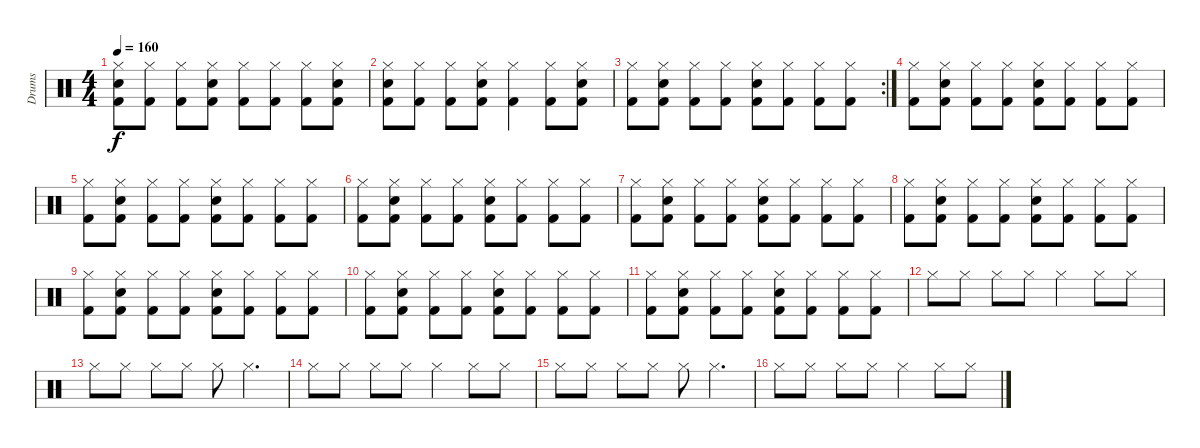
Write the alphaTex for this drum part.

\track ("Drums" "Drums") {instrument percussion}
\staff {score}
\articulation defaults
\ts (4 4)
\tempo 160
\clef neutral
\ks c
("Kick (hit) 2" "Hi-Hat (closed)" "Snare (hit) 2").8{dy f} ("Kick (hit) 2" "Hi-Hat (closed)").8 ("Kick (hit) 2" "Hi-Hat (closed)").8 ("Kick (hit) 2" "Hi-Hat (closed)" "Snare (hit) 2").8 ("Kick (hit) 2" "Hi-Hat (closed)").8 ("Kick (hit) 2" "Hi-Hat (closed)").8 ("Kick (hit) 2" "Hi-Hat (closed)").8 ("Kick (hit) 2" "Hi-Hat (closed)" "Snare (hit) 2").8 |
("Kick (hit) 2" "Hi-Hat (closed)" "Snare (hit) 2").8 ("Kick (hit) 2" "Hi-Hat (closed)").8 ("Kick (hit) 2" "Hi-Hat (closed)").8 ("Kick (hit) 2" "Hi-Hat (closed)" "Snare (hit) 2").8 ("Kick (hit) 2" "Hi-Hat (closed)").4 ("Kick (hit) 2" "Hi-Hat (closed)").8 ("Kick (hit) 2" "Hi-Hat (closed)" "Snare (hit) 2").8 |
\rc 2
("Kick (hit) 2" "Hi-Hat (closed)").8 ("Kick (hit) 2" "Hi-Hat (closed)" "Snare (hit) 2").8 ("Kick (hit) 2" "Hi-Hat (closed)").8 ("Kick (hit) 2" "Hi-Hat (closed)").8 ("Kick (hit) 2" "Hi-Hat (closed)" "Snare (hit) 2").8 ("Kick (hit) 2" "Hi-Hat (closed)").8 ("Kick (hit) 2" "Hi-Hat (closed)").8 ("Kick (hit) 2" "Hi-Hat (closed)").8 |
("Kick (hit) 2" "Hi-Hat (closed)").8 ("Kick (hit) 2" "Hi-Hat (closed)" "Snare (hit) 2").8 ("Kick (hit) 2" "Hi-Hat (closed)").8 ("Kick (hit) 2" "Hi-Hat (closed)").8 ("Kick (hit) 2" "Hi-Hat (closed)" "Snare (hit) 2").8 ("Kick (hit) 2" "Hi-Hat (closed)").8 ("Kick (hit) 2" "Hi-Hat (closed)").8 ("Kick (hit) 2" "Hi-Hat (closed)").8 |
("Kick (hit) 2" "Hi-Hat (closed)").8 ("Kick (hit) 2" "Hi-Hat (closed)" "Snare (hit) 2").8 ("Kick (hit) 2" "Hi-Hat (closed)").8 ("Kick (hit) 2" "Hi-Hat (closed)").8 ("Kick (hit) 2" "Hi-Hat (closed)" "Snare (hit) 2").8 ("Kick (hit) 2" "Hi-Hat (closed)").8 ("Kick (hit) 2" "Hi-Hat (closed)").8 ("Kick (hit) 2" "Hi-Hat (closed)").8 |
("Kick (hit) 2" "Hi-Hat (closed)").8 ("Kick (hit) 2" "Hi-Hat (closed)" "Snare (hit) 2").8 ("Kick (hit) 2" "Hi-Hat (closed)").8 ("Kick (hit) 2" "Hi-Hat (closed)").8 ("Kick (hit) 2" "Hi-Hat (closed)" "Snare (hit) 2").8 ("Kick (hit) 2" "Hi-Hat (closed)").8 ("Kick (hit) 2" "Hi-Hat (closed)").8 ("Kick (hit) 2" "Hi-Hat (closed)").8 |
("Kick (hit) 2" "Hi-Hat (closed)").8 ("Kick (hit) 2" "Hi-Hat (closed)" "Snare (hit) 2").8 ("Kick (hit) 2" "Hi-Hat (closed)").8 ("Kick (hit) 2" "Hi-Hat (closed)").8 ("Kick (hit) 2" "Hi-Hat (closed)" "Snare (hit) 2").8 ("Kick (hit) 2" "Hi-Hat (closed)").8 ("Kick (hit) 2" "Hi-Hat (closed)").8 ("Kick (hit) 2" "Hi-Hat (closed)").8 |
("Kick (hit) 2" "Hi-Hat (closed)").8 ("Kick (hit) 2" "Hi-Hat (closed)" "Snare (hit) 2").8 ("Kick (hit) 2" "Hi-Hat (closed)").8 ("Kick (hit) 2" "Hi-Hat (closed)").8 ("Kick (hit) 2" "Hi-Hat (closed)" "Snare (hit) 2").8 ("Kick (hit) 2" "Hi-Hat (closed)").8 ("Kick (hit) 2" "Hi-Hat (closed)").8 ("Kick (hit) 2" "Hi-Hat (closed)").8 |
("Kick (hit) 2" "Hi-Hat (closed)").8 ("Kick (hit) 2" "Hi-Hat (closed)" "Snare (hit) 2").8 ("Kick (hit) 2" "Hi-Hat (closed)").8 ("Kick (hit) 2" "Hi-Hat (closed)").8 ("Kick (hit) 2" "Hi-Hat (closed)" "Snare (hit) 2").8 ("Kick (hit) 2" "Hi-Hat (closed)").8 ("Kick (hit) 2" "Hi-Hat (closed)").8 ("Kick (hit) 2" "Hi-Hat (closed)").8 |
("Kick (hit) 2" "Hi-Hat (closed)").8 ("Kick (hit) 2" "Hi-Hat (closed)" "Snare (hit) 2").8 ("Kick (hit) 2" "Hi-Hat (closed)").8 ("Kick (hit) 2" "Hi-Hat (closed)").8 ("Kick (hit) 2" "Hi-Hat (closed)" "Snare (hit) 2").8 ("Kick (hit) 2" "Hi-Hat (closed)").8 ("Kick (hit) 2" "Hi-Hat (closed)").8 ("Kick (hit) 2" "Hi-Hat (closed)").8 |
("Kick (hit) 2" "Hi-Hat (closed)").8 ("Kick (hit) 2" "Hi-Hat (closed)" "Snare (hit) 2").8 ("Kick (hit) 2" "Hi-Hat (closed)").8 ("Kick (hit) 2" "Hi-Hat (closed)").8 ("Kick (hit) 2" "Hi-Hat (closed)" "Snare (hit) 2").8 ("Kick (hit) 2" "Hi-Hat (closed)").8 ("Kick (hit) 2" "Hi-Hat (closed)").8 ("Kick (hit) 2" "Hi-Hat (closed)").8 |
"Hi-Hat (closed)".8 "Hi-Hat (closed)".8 "Hi-Hat (closed)".8 "Hi-Hat (closed)".8 "Hi-Hat (closed)".4 "Hi-Hat (closed)".8 "Hi-Hat (closed)".8 |
"Hi-Hat (closed)".8 "Hi-Hat (closed)".8 "Hi-Hat (closed)".8 "Hi-Hat (closed)".8 "Hi-Hat (closed)".8 "Hi-Hat (closed)".4{d} |
"Hi-Hat (closed)".8 "Hi-Hat (closed)".8 "Hi-Hat (closed)".8 "Hi-Hat (closed)".8 "Hi-Hat (closed)".4 "Hi-Hat (closed)".8 "Hi-Hat (closed)".8 |
"Hi-Hat (closed)".8 "Hi-Hat (closed)".8 "Hi-Hat (closed)".8 "Hi-Hat (closed)".8 "Hi-Hat (closed)".8 "Hi-Hat (closed)".4{d} |
"Hi-Hat (closed)".8 "Hi-Hat (closed)".8 "Hi-Hat (closed)".8 "Hi-Hat (closed)".8 "Hi-Hat (closed)".4 "Hi-Hat (closed)".8 "Hi-Hat (closed)".8
